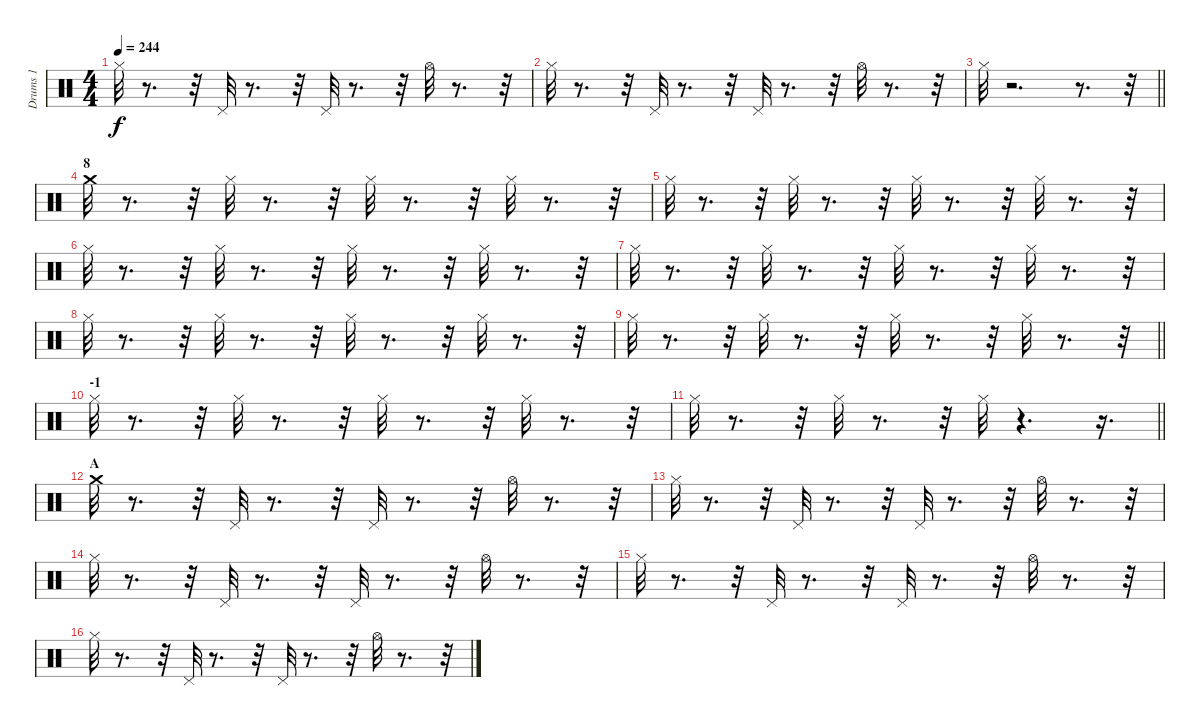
\track ("Drums 1" "Drums 1") {instrument percussion}
\staff {score}
\articulation defaults
\ts (4 4)
\tempo 244
\clef neutral
\ks c "Hi-Hat (closed)".32{dy f}
r.8{d} r.32 "Pedal Hi-Hat (hit)".32 r.8{d} r.32 "Pedal Hi-Hat (hit)".32 r.8{d} r.32 "Hi-Hat (open)".32 r.8{d} r.32 |
"Hi-Hat (closed)".32 r.8{d} r.32 "Pedal Hi-Hat (hit)".32 r.8{d} r.32 "Pedal Hi-Hat (hit)".32 r.8{d} r.32 "Hi-Hat (open)".32 r.8{d} r.32 |
\barLineRight lightlight "Hi-Hat (closed)".32
r.2{d} r.8{d} r.32 |
\section ("" "8")
"Crash medium (hit)".32 r.8{d} r.32 "Hi-Hat (closed)".32 r.8{d} r.32 "Hi-Hat (closed)".32 r.8{d} r.32 "Hi-Hat (closed)".32 r.8{d} r.32 |
"Hi-Hat (closed)".32 r.8{d} r.32 "Hi-Hat (closed)".32 r.8{d} r.32 "Hi-Hat (closed)".32 r.8{d} r.32 "Hi-Hat (closed)".32 r.8{d} r.32 |
"Hi-Hat (closed)".32 r.8{d} r.32 "Hi-Hat (closed)".32 r.8{d} r.32 "Hi-Hat (closed)".32 r.8{d} r.32 "Hi-Hat (closed)".32 r.8{d} r.32 |
"Hi-Hat (closed)".32 r.8{d} r.32 "Hi-Hat (closed)".32 r.8{d} r.32 "Hi-Hat (closed)".32 r.8{d} r.32 "Hi-Hat (closed)".32 r.8{d} r.32 |
"Hi-Hat (closed)".32 r.8{d} r.32 "Hi-Hat (closed)".32 r.8{d} r.32 "Hi-Hat (closed)".32 r.8{d} r.32 "Hi-Hat (closed)".32 r.8{d} r.32 |
\barLineRight lightlight "Hi-Hat (closed)".32
r.8{d} r.32 "Hi-Hat (closed)".32 r.8{d} r.32 "Hi-Hat (closed)".32 r.8{d} r.32 "Hi-Hat (closed)".32 r.8{d} r.32 |
\section ("" "-1")
"Hi-Hat (closed)".32 r.8{d} r.32 "Hi-Hat (closed)".32 r.8{d} r.32 "Hi-Hat (closed)".32 r.8{d} r.32 "Hi-Hat (closed)".32 r.8{d} r.32 |
\barLineRight lightlight "Hi-Hat (closed)".32
r.8{d} r.32 "Hi-Hat (closed)".32 r.8{d} r.32 "Hi-Hat (closed)".32 r.4{d} r.16{d} |
\section ("" "A")
"Crash medium (hit)".32 r.8{d} r.32 "Pedal Hi-Hat (hit)".32 r.8{d} r.32 "Pedal Hi-Hat (hit)".32 r.8{d} r.32 "Hi-Hat (open)".32 r.8{d} r.32 |
"Hi-Hat (closed)".32 r.8{d} r.32 "Pedal Hi-Hat (hit)".32 r.8{d} r.32 "Pedal Hi-Hat (hit)".32 r.8{d} r.32 "Hi-Hat (open)".32 r.8{d} r.32 |
"Hi-Hat (closed)".32 r.8{d} r.32 "Pedal Hi-Hat (hit)".32 r.8{d} r.32 "Pedal Hi-Hat (hit)".32 r.8{d} r.32 "Hi-Hat (open)".32 r.8{d} r.32 |
"Hi-Hat (closed)".32 r.8{d} r.32 "Pedal Hi-Hat (hit)".32 r.8{d} r.32 "Pedal Hi-Hat (hit)".32 r.8{d} r.32 "Hi-Hat (open)".32 r.8{d} r.32 |
"Hi-Hat (closed)".32 r.8{d} r.32 "Pedal Hi-Hat (hit)".32 r.8{d} r.32 "Pedal Hi-Hat (hit)".32 r.8{d} r.32 "Hi-Hat (open)".32 r.8{d} r.32
